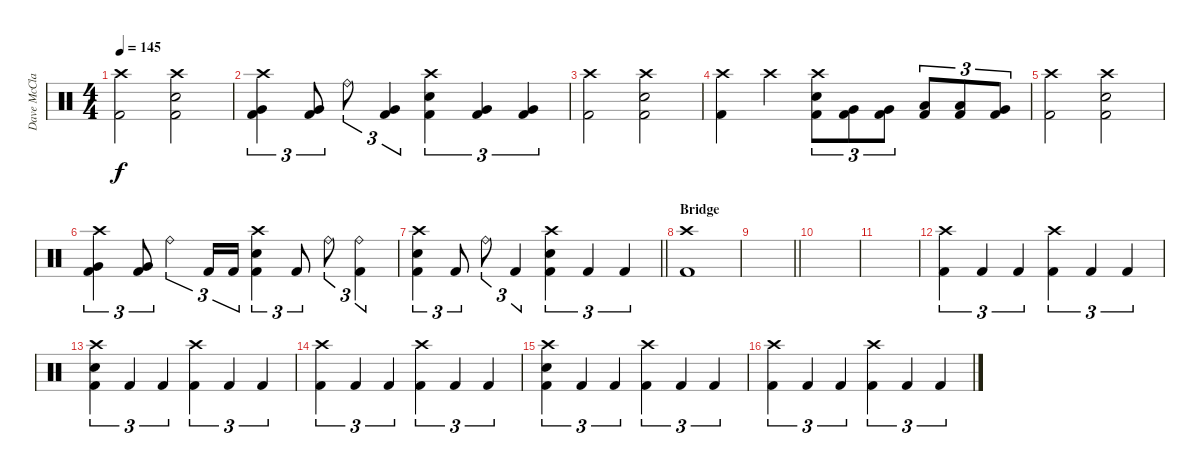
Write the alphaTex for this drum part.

\track ("Dave McClain" "Dave McCla") {instrument percussion}
\staff {score}
\articulation defaults
\ts (4 4)
\tempo 145
\clef neutral
\ks c
("Crash high (hit)" "Kick (hit) 2").2{dy f} ("Crash high (hit)" "Snare (hit) 2" "Kick (hit) 2").2 |
("Crash high (hit)" "Very Low Tom (hit)" "Kick (hit) 2").4{tu (3 2)} ("Very Low Tom (hit)" "Kick (hit) 2").8{tu (3 2)} "Ride (bell)".8{tu (3 2)} ("Very Low Tom (hit)" "Kick (hit) 2").4{tu (3 2)} ("Crash high (hit)" "Snare (hit) 2" "Kick (hit) 2").4{tu (3 2)} ("Very Low Tom (hit)" "Kick (hit) 2").4{tu (3 2)} ("Very Low Tom (hit)" "Kick (hit) 2").4{tu (3 2)} |
("Crash high (hit)" "Kick (hit) 2").2 ("Crash high (hit)" "Snare (hit) 2" "Kick (hit) 2").2 |
("Crash high (hit)" "Kick (hit) 2").4 "Crash high (hit)".4 ("Crash high (hit)" "Snare (hit) 2" "Kick (hit) 2").8{tu (3 2)} ("Very Low Tom (hit)" "Kick (hit) 2").8{tu (3 2)} ("Very Low Tom (hit)" "Kick (hit) 2").8{tu (3 2)} ("Low Tom (hit)" "Kick (hit) 2").8{tu (3 2)} ("Low Tom (hit)" "Kick (hit) 2").8{tu (3 2)} ("Very Low Tom (hit)" "Kick (hit) 2").8{tu (3 2)} |
("Crash high (hit)" "Kick (hit) 2").2 ("Crash high (hit)" "Snare (hit) 2" "Kick (hit) 2").2 |
("Crash high (hit)" "Very Low Tom (hit)" "Kick (hit) 2").4{tu (3 2)} ("Very Low Tom (hit)" "Kick (hit) 2").8{tu (3 2)} "Ride (bell)".4{tu (3 2)} "Kick (hit) 2".16{tu (3 2)} "Kick (hit) 2".16{tu (3 2)} ("Crash high (hit)" "Snare (hit) 2" "Kick (hit) 2").4{tu (3 2)} "Kick (hit) 2".8{tu (3 2)} "Ride (bell)".8{tu (3 2)} ("Ride (bell)" "Kick (hit) 2").4{tu (3 2)} |
\barLineRight lightlight
("Crash high (hit)" "Snare (hit) 2" "Kick (hit) 2").4{tu (3 2)} "Kick (hit) 2".8{tu (3 2)} "Ride (bell)".8{tu (3 2)} "Kick (hit) 2".4{tu (3 2)} ("Crash high (hit)" "Snare (hit) 2" "Kick (hit) 2").4{tu (3 2)} "Kick (hit) 2".4{tu (3 2)} "Kick (hit) 2".4{tu (3 2)} |
\section ("" "Bridge")
("Crash high (hit)" "Kick (hit) 2").1 |
\barLineRight lightlight
|
|
|
("Crash high (hit)" "Kick (hit) 2").4{tu (3 2)} "Kick (hit) 2".4{tu (3 2)} "Kick (hit) 2".4{tu (3 2)} ("Crash high (hit)" "Kick (hit) 2").4{tu (3 2)} "Kick (hit) 2".4{tu (3 2)} "Kick (hit) 2".4{tu (3 2)} |
("Crash high (hit)" "Snare (hit) 2" "Kick (hit) 2").4{tu (3 2)} "Kick (hit) 2".4{tu (3 2)} "Kick (hit) 2".4{tu (3 2)} ("Crash high (hit)" "Kick (hit) 2").4{tu (3 2)} "Kick (hit) 2".4{tu (3 2)} "Kick (hit) 2".4{tu (3 2)} |
("Crash high (hit)" "Kick (hit) 2").4{tu (3 2)} "Kick (hit) 2".4{tu (3 2)} "Kick (hit) 2".4{tu (3 2)} ("Crash high (hit)" "Kick (hit) 2").4{tu (3 2)} "Kick (hit) 2".4{tu (3 2)} "Kick (hit) 2".4{tu (3 2)} |
("Crash high (hit)" "Snare (hit) 2" "Kick (hit) 2").4{tu (3 2)} "Kick (hit) 2".4{tu (3 2)} "Kick (hit) 2".4{tu (3 2)} ("Crash high (hit)" "Kick (hit) 2").4{tu (3 2)} "Kick (hit) 2".4{tu (3 2)} "Kick (hit) 2".4{tu (3 2)} |
("Crash high (hit)" "Kick (hit) 2").4{tu (3 2)} "Kick (hit) 2".4{tu (3 2)} "Kick (hit) 2".4{tu (3 2)} ("Crash high (hit)" "Kick (hit) 2").4{tu (3 2)} "Kick (hit) 2".4{tu (3 2)} "Kick (hit) 2".4{tu (3 2)}
